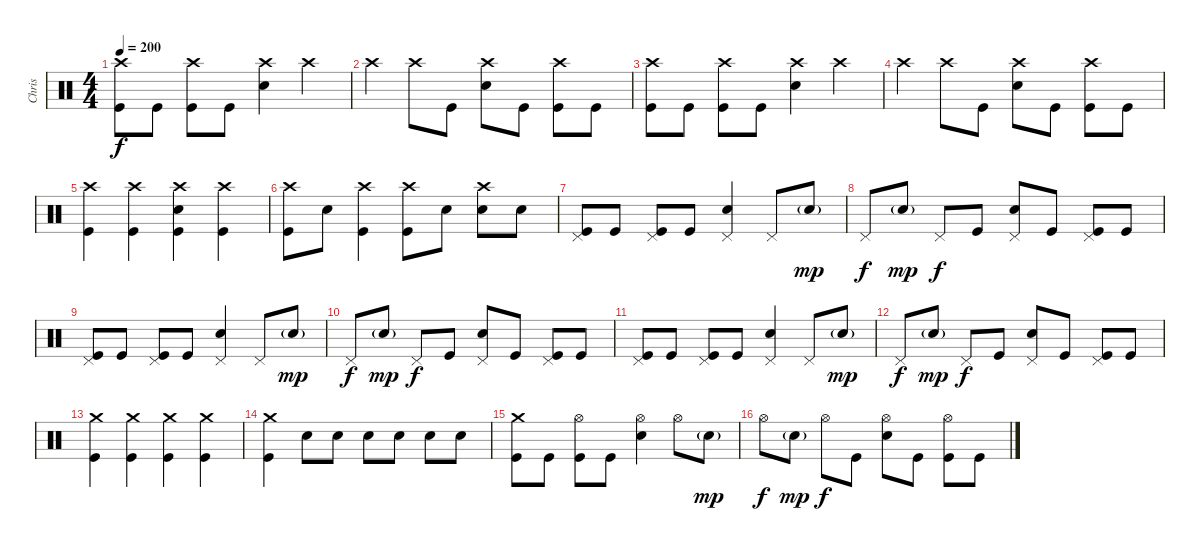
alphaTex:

\track ("Chris" "Chris") {instrument percussion}
\staff {score}
\articulation defaults
\ts (4 4)
\tempo 200
\clef neutral
\ks c
("Crash high (hit)" "Kick (hit)").8{dy f} "Kick (hit)".8 ("Crash high (hit)" "Kick (hit)").8 "Kick (hit)".8 ("Crash high (hit)" "Electric Snare (hit)").4 "Crash high (hit)".4 |
"Crash high (hit)".4 "Crash high (hit)".8 "Kick (hit)".8 ("Crash high (hit)" "Electric Snare (hit)").8 "Kick (hit)".8 ("Crash high (hit)" "Kick (hit)").8 "Kick (hit)".8 |
("Crash high (hit)" "Kick (hit)").8 "Kick (hit)".8 ("Crash high (hit)" "Kick (hit)").8 "Kick (hit)".8 ("Crash high (hit)" "Electric Snare (hit)").4 "Crash high (hit)".4 |
"Crash high (hit)".4 "Crash high (hit)".8 "Kick (hit)".8 ("Crash high (hit)" "Electric Snare (hit)").8 "Kick (hit)".8 ("Crash high (hit)" "Kick (hit)").8 "Kick (hit)".8 |
("Crash high (hit)" "Kick (hit)").4 ("Crash high (hit)" "Kick (hit)").4 ("Crash high (hit)" "Electric Snare (hit)" "Kick (hit)").4 ("Crash high (hit)" "Kick (hit)").4 |
("Crash high (hit)" "Kick (hit)").8 "Electric Snare (hit)".8 ("Crash high (hit)" "Kick (hit)").4 ("Crash high (hit)" "Kick (hit)").8 "Electric Snare (hit)".8 ("Crash high (hit)" "Electric Snare (hit)").8 "Electric Snare (hit)".8 |
("Pedal Hi-Hat (hit)" "Kick (hit)").8 "Kick (hit)".8 ("Pedal Hi-Hat (hit)" "Kick (hit)").8 "Kick (hit)".8 ("Pedal Hi-Hat (hit)" "Electric Snare (hit)").4 "Pedal Hi-Hat (hit)".8 "Electric Snare (hit)"{g}.8{dy mp} |
"Pedal Hi-Hat (hit)".8{dy f} "Electric Snare (hit)"{g}.8{dy mp} "Pedal Hi-Hat (hit)".8{dy f} "Kick (hit)".8 ("Pedal Hi-Hat (hit)" "Electric Snare (hit)").8 "Kick (hit)".8 ("Pedal Hi-Hat (hit)" "Kick (hit)").8 "Kick (hit)".8 |
("Pedal Hi-Hat (hit)" "Kick (hit)").8 "Kick (hit)".8 ("Pedal Hi-Hat (hit)" "Kick (hit)").8 "Kick (hit)".8 ("Pedal Hi-Hat (hit)" "Electric Snare (hit)").4 "Pedal Hi-Hat (hit)".8 "Electric Snare (hit)"{g}.8{dy mp} |
"Pedal Hi-Hat (hit)".8{dy f} "Electric Snare (hit)"{g}.8{dy mp} "Pedal Hi-Hat (hit)".8{dy f} "Kick (hit)".8 ("Pedal Hi-Hat (hit)" "Electric Snare (hit)").8 "Kick (hit)".8 ("Pedal Hi-Hat (hit)" "Kick (hit)").8 "Kick (hit)".8 |
("Pedal Hi-Hat (hit)" "Kick (hit)").8 "Kick (hit)".8 ("Pedal Hi-Hat (hit)" "Kick (hit)").8 "Kick (hit)".8 ("Pedal Hi-Hat (hit)" "Electric Snare (hit)").4 "Pedal Hi-Hat (hit)".8 "Electric Snare (hit)"{g}.8{dy mp} |
"Pedal Hi-Hat (hit)".8{dy f} "Electric Snare (hit)"{g}.8{dy mp} "Pedal Hi-Hat (hit)".8{dy f} "Kick (hit)".8 ("Pedal Hi-Hat (hit)" "Electric Snare (hit)").8 "Kick (hit)".8 ("Pedal Hi-Hat (hit)" "Kick (hit)").8 "Kick (hit)".8 |
("Crash medium (hit)" "Kick (hit)").4 ("Crash medium (hit)" "Kick (hit)").4 ("Crash medium (hit)" "Kick (hit)").4 ("Crash medium (hit)" "Kick (hit)").4 |
("Crash medium (hit)" "Kick (hit)").4 "Electric Snare (hit)".8 "Electric Snare (hit)".8 "Electric Snare (hit)".8 "Electric Snare (hit)".8 "Electric Snare (hit)".8 "Electric Snare (hit)".8 |
("Crash medium (hit)" "Kick (hit)").8 "Kick (hit)".8 ("Hi-Hat (open)" "Kick (hit)").8 "Kick (hit)".8 ("Hi-Hat (open)" "Electric Snare (hit)").4 "Hi-Hat (open)".8 "Electric Snare (hit)"{g}.8{dy mp} |
"Hi-Hat (open)".8{dy f} "Electric Snare (hit)"{g}.8{dy mp} "Hi-Hat (open)".8{dy f} "Kick (hit)".8 ("Hi-Hat (open)" "Electric Snare (hit)").8 "Kick (hit)".8 ("Hi-Hat (open)" "Kick (hit)").8 "Kick (hit)".8
